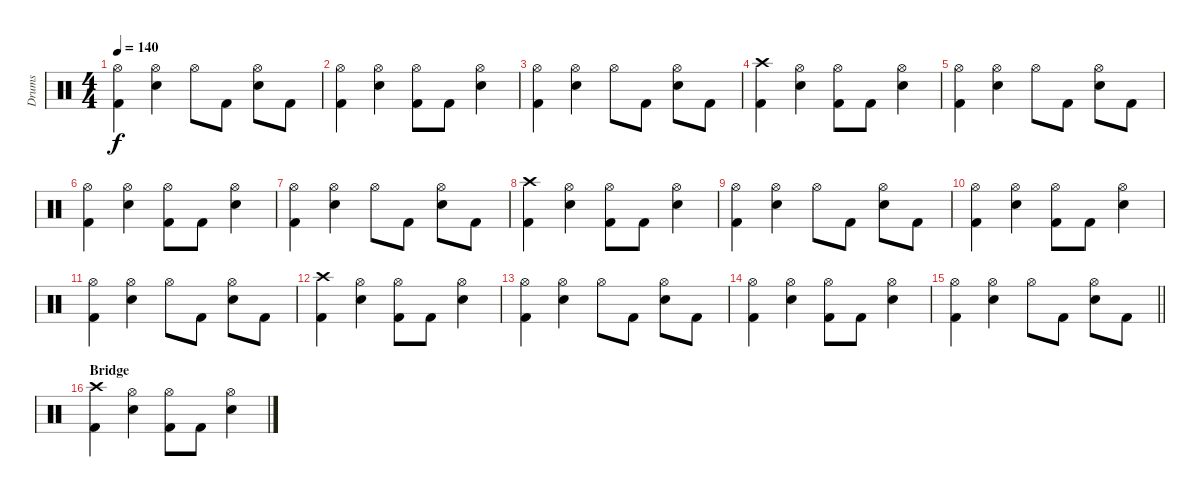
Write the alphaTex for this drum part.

\track ("Drums" "Drums") {instrument percussion}
\staff {score}
\articulation defaults
\ts (4 4)
\tempo 140
\clef neutral
\ks c
("Hi-Hat (open)" "Kick (hit) 2").4{dy f} ("Hi-Hat (open)" "Electric Snare (hit)").4 "Hi-Hat (open)".8 "Kick (hit) 2".8 ("Hi-Hat (open)" "Electric Snare (hit)").8 "Kick (hit) 2".8 |
("Hi-Hat (open)" "Kick (hit) 2").4 ("Hi-Hat (open)" "Electric Snare (hit)").4 ("Hi-Hat (open)" "Kick (hit) 2").8 "Kick (hit) 2".8 ("Hi-Hat (open)" "Electric Snare (hit)").4 |
("Hi-Hat (open)" "Kick (hit) 2").4 ("Hi-Hat (open)" "Electric Snare (hit)").4 "Hi-Hat (open)".8 "Kick (hit) 2".8 ("Hi-Hat (open)" "Electric Snare (hit)").8 "Kick (hit) 2".8 |
("Crash high (hit)" "Kick (hit) 2").4 ("Hi-Hat (open)" "Electric Snare (hit)").4 ("Hi-Hat (open)" "Kick (hit) 2").8 "Kick (hit) 2".8 ("Hi-Hat (open)" "Electric Snare (hit)").4 |
("Hi-Hat (open)" "Kick (hit) 2").4 ("Hi-Hat (open)" "Electric Snare (hit)").4 "Hi-Hat (open)".8 "Kick (hit) 2".8 ("Hi-Hat (open)" "Electric Snare (hit)").8 "Kick (hit) 2".8 |
("Hi-Hat (open)" "Kick (hit) 2").4 ("Hi-Hat (open)" "Electric Snare (hit)").4 ("Hi-Hat (open)" "Kick (hit) 2").8 "Kick (hit) 2".8 ("Hi-Hat (open)" "Electric Snare (hit)").4 |
("Hi-Hat (open)" "Kick (hit) 2").4 ("Hi-Hat (open)" "Electric Snare (hit)").4 "Hi-Hat (open)".8 "Kick (hit) 2".8 ("Hi-Hat (open)" "Electric Snare (hit)").8 "Kick (hit) 2".8 |
("Crash high (hit)" "Kick (hit) 2").4 ("Hi-Hat (open)" "Electric Snare (hit)").4 ("Hi-Hat (open)" "Kick (hit) 2").8 "Kick (hit) 2".8 ("Hi-Hat (open)" "Electric Snare (hit)").4 |
("Hi-Hat (open)" "Kick (hit) 2").4 ("Hi-Hat (open)" "Electric Snare (hit)").4 "Hi-Hat (open)".8 "Kick (hit) 2".8 ("Hi-Hat (open)" "Electric Snare (hit)").8 "Kick (hit) 2".8 |
("Hi-Hat (open)" "Kick (hit) 2").4 ("Hi-Hat (open)" "Electric Snare (hit)").4 ("Hi-Hat (open)" "Kick (hit) 2").8 "Kick (hit) 2".8 ("Hi-Hat (open)" "Electric Snare (hit)").4 |
("Hi-Hat (open)" "Kick (hit) 2").4 ("Hi-Hat (open)" "Electric Snare (hit)").4 "Hi-Hat (open)".8 "Kick (hit) 2".8 ("Hi-Hat (open)" "Electric Snare (hit)").8 "Kick (hit) 2".8 |
("Crash high (hit)" "Kick (hit) 2").4 ("Hi-Hat (open)" "Electric Snare (hit)").4 ("Hi-Hat (open)" "Kick (hit) 2").8 "Kick (hit) 2".8 ("Hi-Hat (open)" "Electric Snare (hit)").4 |
("Hi-Hat (open)" "Kick (hit) 2").4 ("Hi-Hat (open)" "Electric Snare (hit)").4 "Hi-Hat (open)".8 "Kick (hit) 2".8 ("Hi-Hat (open)" "Electric Snare (hit)").8 "Kick (hit) 2".8 |
("Hi-Hat (open)" "Kick (hit) 2").4 ("Hi-Hat (open)" "Electric Snare (hit)").4 ("Hi-Hat (open)" "Kick (hit) 2").8 "Kick (hit) 2".8 ("Hi-Hat (open)" "Electric Snare (hit)").4 |
\barLineRight lightlight
("Hi-Hat (open)" "Kick (hit) 2").4 ("Hi-Hat (open)" "Electric Snare (hit)").4 "Hi-Hat (open)".8 "Kick (hit) 2".8 ("Hi-Hat (open)" "Electric Snare (hit)").8 "Kick (hit) 2".8 |
\section ("" "Bridge ")
("Crash high (hit)" "Kick (hit) 2").4 ("Hi-Hat (open)" "Electric Snare (hit)").4 ("Hi-Hat (open)" "Kick (hit) 2").8 "Kick (hit) 2".8 ("Hi-Hat (open)" "Electric Snare (hit)").4
